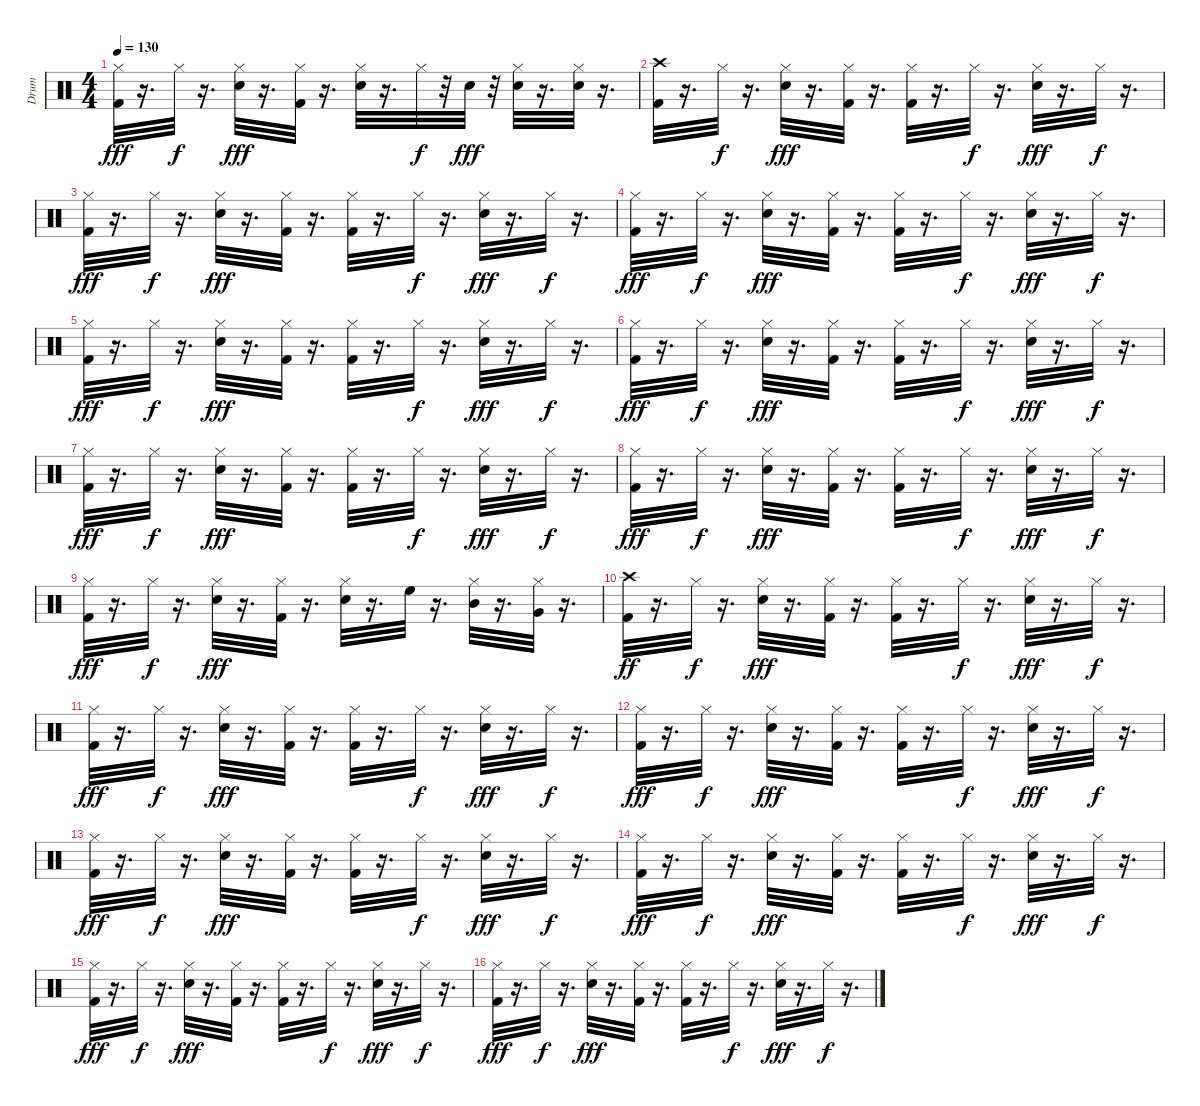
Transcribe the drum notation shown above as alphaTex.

\track ("Drum" "Drum") {instrument percussion}
\staff {score}
\articulation defaults
\ts (4 4)
\tempo 130
\clef neutral
\ks c
("Kick (hit) 2" "Hi-Hat (closed)").32{dy fff} r.16{d} "Hi-Hat (closed)".32{dy f} r.16{d} ("Hi-Hat (closed)" "Electric Snare (hit)").32{dy fff} r.16{d} ("Kick (hit) 2" "Hi-Hat (closed)").32 r.16{d} ("Electric Snare (hit)" "Hi-Hat (closed)").32 r.16{d} "Hi-Hat (closed)".32{dy f} r.32 "Electric Snare (hit)".32{dy fff} r.32 ("Hi-Hat (closed)" "Electric Snare (hit)").32 r.16{d} ("Hi-Hat (closed)" "Electric Snare (hit)").32 r.16{d} |
("Crash high (hit)" "Kick (hit) 2").32 r.16{d} "Hi-Hat (closed)".32{dy f} r.16{d} ("Hi-Hat (closed)" "Electric Snare (hit)").32{dy fff} r.16{d} ("Kick (hit) 2" "Hi-Hat (closed)").32 r.16{d} ("Kick (hit) 2" "Hi-Hat (closed)").32 r.16{d} "Hi-Hat (closed)".32{dy f} r.16{d} ("Hi-Hat (closed)" "Electric Snare (hit)").32{dy fff} r.16{d} "Hi-Hat (closed)".32{dy f} r.16{d} |
("Kick (hit) 2" "Hi-Hat (closed)").32{dy fff} r.16{d} "Hi-Hat (closed)".32{dy f} r.16{d} ("Hi-Hat (closed)" "Electric Snare (hit)").32{dy fff} r.16{d} ("Kick (hit) 2" "Hi-Hat (closed)").32 r.16{d} ("Kick (hit) 2" "Hi-Hat (closed)").32 r.16{d} "Hi-Hat (closed)".32{dy f} r.16{d} ("Hi-Hat (closed)" "Electric Snare (hit)").32{dy fff} r.16{d} "Hi-Hat (closed)".32{dy f} r.16{d} |
("Kick (hit) 2" "Hi-Hat (closed)").32{dy fff} r.16{d} "Hi-Hat (closed)".32{dy f} r.16{d} ("Hi-Hat (closed)" "Electric Snare (hit)").32{dy fff} r.16{d} ("Kick (hit) 2" "Hi-Hat (closed)").32 r.16{d} ("Kick (hit) 2" "Hi-Hat (closed)").32 r.16{d} "Hi-Hat (closed)".32{dy f} r.16{d} ("Hi-Hat (closed)" "Electric Snare (hit)").32{dy fff} r.16{d} "Hi-Hat (closed)".32{dy f} r.16{d} |
("Kick (hit) 2" "Hi-Hat (closed)").32{dy fff} r.16{d} "Hi-Hat (closed)".32{dy f} r.16{d} ("Hi-Hat (closed)" "Electric Snare (hit)").32{dy fff} r.16{d} ("Kick (hit) 2" "Hi-Hat (closed)").32 r.16{d} ("Kick (hit) 2" "Hi-Hat (closed)").32 r.16{d} "Hi-Hat (closed)".32{dy f} r.16{d} ("Hi-Hat (closed)" "Electric Snare (hit)").32{dy fff} r.16{d} "Hi-Hat (closed)".32{dy f} r.16{d} |
("Kick (hit) 2" "Hi-Hat (closed)").32{dy fff} r.16{d} "Hi-Hat (closed)".32{dy f} r.16{d} ("Hi-Hat (closed)" "Electric Snare (hit)").32{dy fff} r.16{d} ("Kick (hit) 2" "Hi-Hat (closed)").32 r.16{d} ("Kick (hit) 2" "Hi-Hat (closed)").32 r.16{d} "Hi-Hat (closed)".32{dy f} r.16{d} ("Hi-Hat (closed)" "Electric Snare (hit)").32{dy fff} r.16{d} "Hi-Hat (closed)".32{dy f} r.16{d} |
("Kick (hit) 2" "Hi-Hat (closed)").32{dy fff} r.16{d} "Hi-Hat (closed)".32{dy f} r.16{d} ("Hi-Hat (closed)" "Electric Snare (hit)").32{dy fff} r.16{d} ("Kick (hit) 2" "Hi-Hat (closed)").32 r.16{d} ("Kick (hit) 2" "Hi-Hat (closed)").32 r.16{d} "Hi-Hat (closed)".32{dy f} r.16{d} ("Hi-Hat (closed)" "Electric Snare (hit)").32{dy fff} r.16{d} "Hi-Hat (closed)".32{dy f} r.16{d} |
("Kick (hit) 2" "Hi-Hat (closed)").32{dy fff} r.16{d} "Hi-Hat (closed)".32{dy f} r.16{d} ("Hi-Hat (closed)" "Electric Snare (hit)").32{dy fff} r.16{d} ("Kick (hit) 2" "Hi-Hat (closed)").32 r.16{d} ("Kick (hit) 2" "Hi-Hat (closed)").32 r.16{d} "Hi-Hat (closed)".32{dy f} r.16{d} ("Hi-Hat (closed)" "Electric Snare (hit)").32{dy fff} r.16{d} "Hi-Hat (closed)".32{dy f} r.16{d} |
("Hi-Hat (closed)" "Kick (hit) 2").32{dy fff} r.16{d} "Hi-Hat (closed)".32{dy f} r.16{d} ("Hi-Hat (closed)" "Electric Snare (hit)").32{dy fff} r.16{d} ("Kick (hit) 2" "Hi-Hat (closed)").32 r.16{d} ("Electric Snare (hit)" "Hi-Hat (closed)").32 r.16{d} "High Floor Tom (hit)".32 r.16{d} ("Hi-Hat (closed)" "Mid Tom (hit)").32 r.16{d} ("Very Low Tom (hit)" "Hi-Hat (closed)").32 r.16{d} |
("Kick (hit) 2" "Crash high (hit)").32{dy ff} r.16{d} "Hi-Hat (closed)".32{dy f} r.16{d} ("Hi-Hat (closed)" "Electric Snare (hit)").32{dy fff} r.16{d} ("Kick (hit) 2" "Hi-Hat (closed)").32 r.16{d} ("Kick (hit) 2" "Hi-Hat (closed)").32 r.16{d} "Hi-Hat (closed)".32{dy f} r.16{d} ("Hi-Hat (closed)" "Electric Snare (hit)").32{dy fff} r.16{d} "Hi-Hat (closed)".32{dy f} r.16{d} |
("Kick (hit) 2" "Hi-Hat (closed)").32{dy fff} r.16{d} "Hi-Hat (closed)".32{dy f} r.16{d} ("Hi-Hat (closed)" "Electric Snare (hit)").32{dy fff} r.16{d} ("Kick (hit) 2" "Hi-Hat (closed)").32 r.16{d} ("Kick (hit) 2" "Hi-Hat (closed)").32 r.16{d} "Hi-Hat (closed)".32{dy f} r.16{d} ("Hi-Hat (closed)" "Electric Snare (hit)").32{dy fff} r.16{d} "Hi-Hat (closed)".32{dy f} r.16{d} |
("Kick (hit) 2" "Hi-Hat (closed)").32{dy fff} r.16{d} "Hi-Hat (closed)".32{dy f} r.16{d} ("Hi-Hat (closed)" "Electric Snare (hit)").32{dy fff} r.16{d} ("Kick (hit) 2" "Hi-Hat (closed)").32 r.16{d} ("Kick (hit) 2" "Hi-Hat (closed)").32 r.16{d} "Hi-Hat (closed)".32{dy f} r.16{d} ("Hi-Hat (closed)" "Electric Snare (hit)").32{dy fff} r.16{d} "Hi-Hat (closed)".32{dy f} r.16{d} |
("Kick (hit) 2" "Hi-Hat (closed)").32{dy fff} r.16{d} "Hi-Hat (closed)".32{dy f} r.16{d} ("Hi-Hat (closed)" "Electric Snare (hit)").32{dy fff} r.16{d} ("Kick (hit) 2" "Hi-Hat (closed)").32 r.16{d} ("Kick (hit) 2" "Hi-Hat (closed)").32 r.16{d} "Hi-Hat (closed)".32{dy f} r.16{d} ("Hi-Hat (closed)" "Electric Snare (hit)").32{dy fff} r.16{d} "Hi-Hat (closed)".32{dy f} r.16{d} |
("Kick (hit) 2" "Hi-Hat (closed)").32{dy fff} r.16{d} "Hi-Hat (closed)".32{dy f} r.16{d} ("Hi-Hat (closed)" "Electric Snare (hit)").32{dy fff} r.16{d} ("Kick (hit) 2" "Hi-Hat (closed)").32 r.16{d} ("Kick (hit) 2" "Hi-Hat (closed)").32 r.16{d} "Hi-Hat (closed)".32{dy f} r.16{d} ("Hi-Hat (closed)" "Electric Snare (hit)").32{dy fff} r.16{d} "Hi-Hat (closed)".32{dy f} r.16{d} |
("Kick (hit) 2" "Hi-Hat (closed)").32{dy fff} r.16{d} "Hi-Hat (closed)".32{dy f} r.16{d} ("Hi-Hat (closed)" "Electric Snare (hit)").32{dy fff} r.16{d} ("Kick (hit) 2" "Hi-Hat (closed)").32 r.16{d} ("Kick (hit) 2" "Hi-Hat (closed)").32 r.16{d} "Hi-Hat (closed)".32{dy f} r.16{d} ("Hi-Hat (closed)" "Electric Snare (hit)").32{dy fff} r.16{d} "Hi-Hat (closed)".32{dy f} r.16{d} |
("Kick (hit) 2" "Hi-Hat (closed)").32{dy fff} r.16{d} "Hi-Hat (closed)".32{dy f} r.16{d} ("Hi-Hat (closed)" "Electric Snare (hit)").32{dy fff} r.16{d} ("Kick (hit) 2" "Hi-Hat (closed)").32 r.16{d} ("Kick (hit) 2" "Hi-Hat (closed)").32 r.16{d} "Hi-Hat (closed)".32{dy f} r.16{d} ("Hi-Hat (closed)" "Electric Snare (hit)").32{dy fff} r.16{d} "Hi-Hat (closed)".32{dy f} r.16{d}
